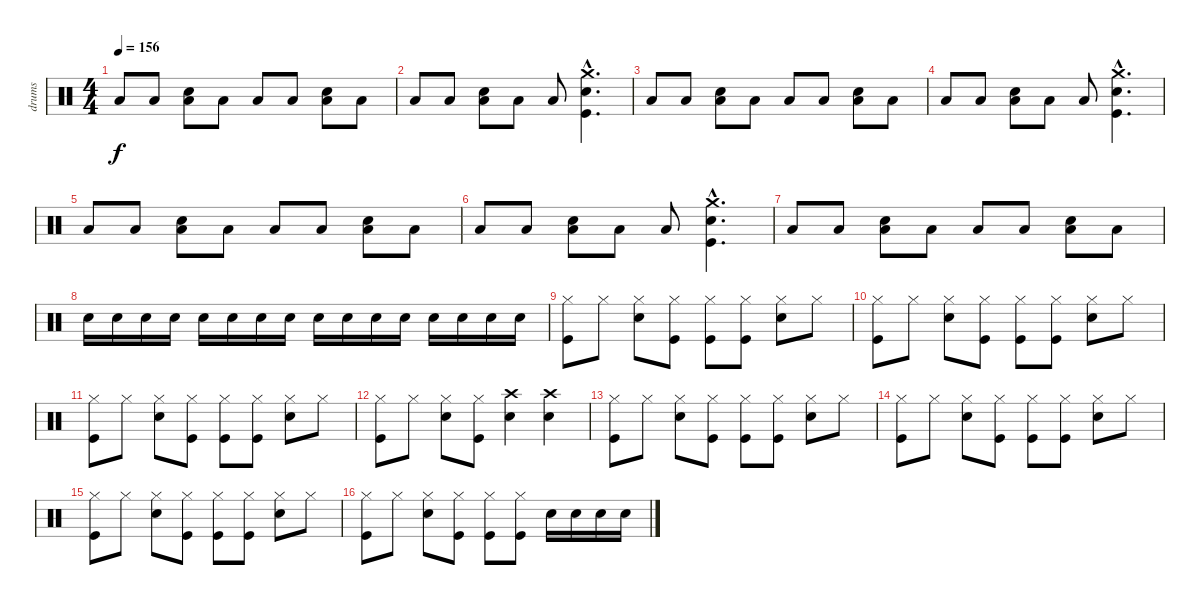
\track ("drums" "drums") {instrument percussion}
\staff {score}
\articulation defaults
\ts (4 4)
\tempo 156
\clef neutral
\ks c "Low Tom (hit)".8{dy f} "Low Tom (hit)".8
("Snare (hit) 2" "Low Tom (hit)").8 "Low Tom (hit)".8 "Low Tom (hit)".8 "Low Tom (hit)".8 ("Snare (hit) 2" "Low Tom (hit)").8 "Low Tom (hit)".8 |
"Low Tom (hit)".8 "Low Tom (hit)".8 ("Snare (hit) 2" "Low Tom (hit)").8 "Low Tom (hit)".8 "Low Tom (hit)".8 ("Kick (hit)"{hac} "Crash medium (hit)"{hac} "Snare (hit) 2"{hac}).4{d} |
"Low Tom (hit)".8 "Low Tom (hit)".8 ("Snare (hit) 2" "Low Tom (hit)").8 "Low Tom (hit)".8 "Low Tom (hit)".8 "Low Tom (hit)".8 ("Snare (hit) 2" "Low Tom (hit)").8 "Low Tom (hit)".8 |
"Low Tom (hit)".8 "Low Tom (hit)".8 ("Snare (hit) 2" "Low Tom (hit)").8 "Low Tom (hit)".8 "Low Tom (hit)".8 ("Snare (hit) 2"{hac} "Crash medium (hit)"{hac} "Kick (hit)"{hac}).4{d} |
"Low Tom (hit)".8 "Low Tom (hit)".8 ("Snare (hit) 2" "Low Tom (hit)").8 "Low Tom (hit)".8 "Low Tom (hit)".8 "Low Tom (hit)".8 ("Snare (hit) 2" "Low Tom (hit)").8 "Low Tom (hit)".8 |
"Low Tom (hit)".8 "Low Tom (hit)".8 ("Snare (hit) 2" "Low Tom (hit)").8 "Low Tom (hit)".8 "Low Tom (hit)".8 ("Snare (hit) 2"{hac} "Crash medium (hit)"{hac} "Kick (hit)"{hac}).4{d} |
"Low Tom (hit)".8 "Low Tom (hit)".8 ("Snare (hit) 2" "Low Tom (hit)").8 "Low Tom (hit)".8 "Low Tom (hit)".8 "Low Tom (hit)".8 ("Snare (hit) 2" "Low Tom (hit)").8 "Low Tom (hit)".8 |
"Snare (hit) 2".16 "Snare (hit) 2".16 "Snare (hit) 2".16 "Snare (hit) 2".16 "Snare (hit) 2".16 "Snare (hit) 2".16 "Snare (hit) 2".16 "Snare (hit) 2".16 "Snare (hit) 2".16 "Snare (hit) 2".16 "Snare (hit) 2".16 "Snare (hit) 2".16 "Snare (hit) 2".16 "Snare (hit) 2".16 "Snare (hit) 2".16 "Snare (hit) 2".16 |
("Hi-Hat (closed)" "Kick (hit)").8 "Hi-Hat (closed)".8 ("Hi-Hat (closed)" "Snare (hit) 2").8 ("Hi-Hat (closed)" "Kick (hit)").8 ("Hi-Hat (closed)" "Kick (hit)").8 ("Hi-Hat (closed)" "Kick (hit)").8 ("Hi-Hat (closed)" "Snare (hit) 2").8 "Hi-Hat (closed)".8 |
("Hi-Hat (closed)" "Kick (hit)").8 "Hi-Hat (closed)".8 ("Hi-Hat (closed)" "Snare (hit) 2").8 ("Hi-Hat (closed)" "Kick (hit)").8 ("Hi-Hat (closed)" "Kick (hit)").8 ("Hi-Hat (closed)" "Kick (hit)").8 ("Hi-Hat (closed)" "Snare (hit) 2").8 "Hi-Hat (closed)".8 |
("Hi-Hat (closed)" "Kick (hit)").8 "Hi-Hat (closed)".8 ("Hi-Hat (closed)" "Snare (hit) 2").8 ("Hi-Hat (closed)" "Kick (hit)").8 ("Hi-Hat (closed)" "Kick (hit)").8 ("Hi-Hat (closed)" "Kick (hit)").8 ("Hi-Hat (closed)" "Snare (hit) 2").8 "Hi-Hat (closed)".8 |
("Hi-Hat (closed)" "Kick (hit)").8 "Hi-Hat (closed)".8 ("Hi-Hat (closed)" "Snare (hit) 2").8 ("Hi-Hat (closed)" "Kick (hit)").8 ("Snare (hit) 2" "Crash high (hit)").4 ("Snare (hit) 2" "Crash high (hit)").4 |
("Hi-Hat (closed)" "Kick (hit)").8 "Hi-Hat (closed)".8 ("Hi-Hat (closed)" "Snare (hit) 2").8 ("Hi-Hat (closed)" "Kick (hit)").8 ("Hi-Hat (closed)" "Kick (hit)").8 ("Hi-Hat (closed)" "Kick (hit)").8 ("Hi-Hat (closed)" "Snare (hit) 2").8 "Hi-Hat (closed)".8 |
("Hi-Hat (closed)" "Kick (hit)").8 "Hi-Hat (closed)".8 ("Hi-Hat (closed)" "Snare (hit) 2").8 ("Hi-Hat (closed)" "Kick (hit)").8 ("Hi-Hat (closed)" "Kick (hit)").8 ("Hi-Hat (closed)" "Kick (hit)").8 ("Hi-Hat (closed)" "Snare (hit) 2").8 "Hi-Hat (closed)".8 |
("Hi-Hat (closed)" "Kick (hit)").8 "Hi-Hat (closed)".8 ("Hi-Hat (closed)" "Snare (hit) 2").8 ("Hi-Hat (closed)" "Kick (hit)").8 ("Hi-Hat (closed)" "Kick (hit)").8 ("Hi-Hat (closed)" "Kick (hit)").8 ("Hi-Hat (closed)" "Snare (hit) 2").8 "Hi-Hat (closed)".8 |
("Hi-Hat (closed)" "Kick (hit)").8 "Hi-Hat (closed)".8 ("Hi-Hat (closed)" "Snare (hit) 2").8 ("Hi-Hat (closed)" "Kick (hit)").8 ("Hi-Hat (closed)" "Kick (hit)").8 ("Hi-Hat (closed)" "Kick (hit)").8 "Snare (hit) 2".16 "Snare (hit) 2".16 "Snare (hit) 2".16 "Snare (hit) 2".16
